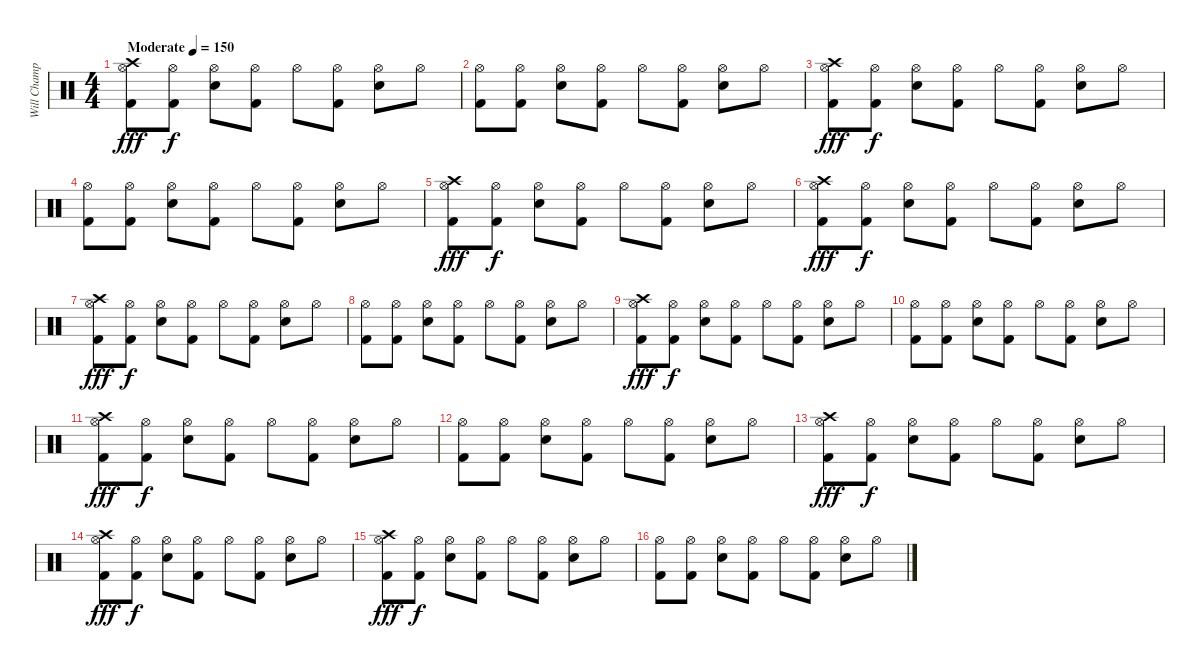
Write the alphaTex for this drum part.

\track ("Will Champion" "Will Champ") {instrument percussion}
\staff {score}
\articulation defaults
\ts (4 4)
\tempo (150 "Moderate")
\clef neutral
\ks c
("Kick (hit) 2" "Hi-Hat (open)" "Crash high (hit)").8{dy fff} ("Kick (hit) 2" "Hi-Hat (open)").8{dy f} ("Electric Snare (hit)" "Hi-Hat (open)").8 ("Kick (hit) 2" "Hi-Hat (open)").8 "Hi-Hat (open)".8 ("Kick (hit) 2" "Hi-Hat (open)").8 ("Electric Snare (hit)" "Hi-Hat (open)").8 "Hi-Hat (open)".8 |
("Kick (hit) 2" "Hi-Hat (open)").8 ("Kick (hit) 2" "Hi-Hat (open)").8 ("Electric Snare (hit)" "Hi-Hat (open)").8 ("Kick (hit) 2" "Hi-Hat (open)").8 "Hi-Hat (open)".8 ("Kick (hit) 2" "Hi-Hat (open)").8 ("Electric Snare (hit)" "Hi-Hat (open)").8 "Hi-Hat (open)".8 |
("Kick (hit) 2" "Hi-Hat (open)" "Crash high (hit)").8{dy fff} ("Kick (hit) 2" "Hi-Hat (open)").8{dy f} ("Electric Snare (hit)" "Hi-Hat (open)").8 ("Kick (hit) 2" "Hi-Hat (open)").8 "Hi-Hat (open)".8 ("Kick (hit) 2" "Hi-Hat (open)").8 ("Electric Snare (hit)" "Hi-Hat (open)").8 "Hi-Hat (open)".8 |
("Kick (hit) 2" "Hi-Hat (open)").8 ("Kick (hit) 2" "Hi-Hat (open)").8 ("Electric Snare (hit)" "Hi-Hat (open)").8 ("Kick (hit) 2" "Hi-Hat (open)").8 "Hi-Hat (open)".8 ("Kick (hit) 2" "Hi-Hat (open)").8 ("Electric Snare (hit)" "Hi-Hat (open)").8 "Hi-Hat (open)".8 |
("Kick (hit) 2" "Hi-Hat (open)" "Crash high (hit)").8{dy fff} ("Kick (hit) 2" "Hi-Hat (open)").8{dy f} ("Electric Snare (hit)" "Hi-Hat (open)").8 ("Kick (hit) 2" "Hi-Hat (open)").8 "Hi-Hat (open)".8 ("Kick (hit) 2" "Hi-Hat (open)").8 ("Electric Snare (hit)" "Hi-Hat (open)").8 "Hi-Hat (open)".8 |
("Kick (hit) 2" "Hi-Hat (open)" "Crash high (hit)").8{dy fff} ("Kick (hit) 2" "Hi-Hat (open)").8{dy f} ("Electric Snare (hit)" "Hi-Hat (open)").8 ("Kick (hit) 2" "Hi-Hat (open)").8 "Hi-Hat (open)".8 ("Kick (hit) 2" "Hi-Hat (open)").8 ("Electric Snare (hit)" "Hi-Hat (open)").8 "Hi-Hat (open)".8 |
("Kick (hit) 2" "Hi-Hat (open)" "Crash high (hit)").8{dy fff} ("Kick (hit) 2" "Hi-Hat (open)").8{dy f} ("Electric Snare (hit)" "Hi-Hat (open)").8 ("Kick (hit) 2" "Hi-Hat (open)").8 "Hi-Hat (open)".8 ("Kick (hit) 2" "Hi-Hat (open)").8 ("Electric Snare (hit)" "Hi-Hat (open)").8 "Hi-Hat (open)".8 |
("Kick (hit) 2" "Hi-Hat (open)").8 ("Kick (hit) 2" "Hi-Hat (open)").8 ("Electric Snare (hit)" "Hi-Hat (open)").8 ("Kick (hit) 2" "Hi-Hat (open)").8 "Hi-Hat (open)".8 ("Kick (hit) 2" "Hi-Hat (open)").8 ("Electric Snare (hit)" "Hi-Hat (open)").8 "Hi-Hat (open)".8 |
("Kick (hit) 2" "Hi-Hat (open)" "Crash high (hit)").8{dy fff} ("Kick (hit) 2" "Hi-Hat (open)").8{dy f} ("Electric Snare (hit)" "Hi-Hat (open)").8 ("Kick (hit) 2" "Hi-Hat (open)").8 "Hi-Hat (open)".8 ("Kick (hit) 2" "Hi-Hat (open)").8 ("Electric Snare (hit)" "Hi-Hat (open)").8 "Hi-Hat (open)".8 |
("Kick (hit) 2" "Hi-Hat (open)").8 ("Kick (hit) 2" "Hi-Hat (open)").8 ("Electric Snare (hit)" "Hi-Hat (open)").8 ("Kick (hit) 2" "Hi-Hat (open)").8 "Hi-Hat (open)".8 ("Kick (hit) 2" "Hi-Hat (open)").8 ("Electric Snare (hit)" "Hi-Hat (open)").8 "Hi-Hat (open)".8 |
("Kick (hit) 2" "Hi-Hat (open)" "Crash high (hit)").8{dy fff} ("Kick (hit) 2" "Hi-Hat (open)").8{dy f} ("Electric Snare (hit)" "Hi-Hat (open)").8 ("Kick (hit) 2" "Hi-Hat (open)").8 "Hi-Hat (open)".8 ("Kick (hit) 2" "Hi-Hat (open)").8 ("Electric Snare (hit)" "Hi-Hat (open)").8 "Hi-Hat (open)".8 |
("Kick (hit) 2" "Hi-Hat (open)").8 ("Kick (hit) 2" "Hi-Hat (open)").8 ("Electric Snare (hit)" "Hi-Hat (open)").8 ("Kick (hit) 2" "Hi-Hat (open)").8 "Hi-Hat (open)".8 ("Kick (hit) 2" "Hi-Hat (open)").8 ("Electric Snare (hit)" "Hi-Hat (open)").8 "Hi-Hat (open)".8 |
("Kick (hit) 2" "Hi-Hat (open)" "Crash high (hit)").8{dy fff} ("Kick (hit) 2" "Hi-Hat (open)").8{dy f} ("Electric Snare (hit)" "Hi-Hat (open)").8 ("Kick (hit) 2" "Hi-Hat (open)").8 "Hi-Hat (open)".8 ("Kick (hit) 2" "Hi-Hat (open)").8 ("Electric Snare (hit)" "Hi-Hat (open)").8 "Hi-Hat (open)".8 |
("Kick (hit) 2" "Hi-Hat (open)" "Crash high (hit)").8{dy fff} ("Kick (hit) 2" "Hi-Hat (open)").8{dy f} ("Electric Snare (hit)" "Hi-Hat (open)").8 ("Kick (hit) 2" "Hi-Hat (open)").8 "Hi-Hat (open)".8 ("Kick (hit) 2" "Hi-Hat (open)").8 ("Electric Snare (hit)" "Hi-Hat (open)").8 "Hi-Hat (open)".8 |
("Kick (hit) 2" "Hi-Hat (open)" "Crash high (hit)").8{dy fff} ("Kick (hit) 2" "Hi-Hat (open)").8{dy f} ("Electric Snare (hit)" "Hi-Hat (open)").8 ("Kick (hit) 2" "Hi-Hat (open)").8 "Hi-Hat (open)".8 ("Kick (hit) 2" "Hi-Hat (open)").8 ("Electric Snare (hit)" "Hi-Hat (open)").8 "Hi-Hat (open)".8 |
("Kick (hit) 2" "Hi-Hat (open)").8 ("Kick (hit) 2" "Hi-Hat (open)").8 ("Electric Snare (hit)" "Hi-Hat (open)").8 ("Kick (hit) 2" "Hi-Hat (open)").8 "Hi-Hat (open)".8 ("Kick (hit) 2" "Hi-Hat (open)").8 ("Electric Snare (hit)" "Hi-Hat (open)").8 "Hi-Hat (open)".8
